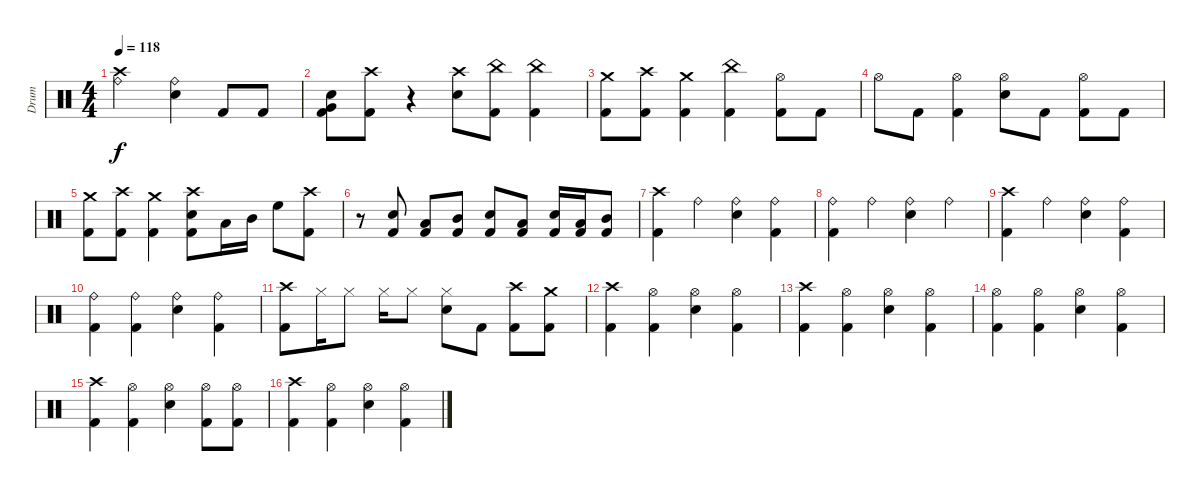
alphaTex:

\track ("Drum" "Drum") {instrument percussion}
\staff {score}
\articulation defaults
\ts (4 4)
\tempo 118
\clef neutral
\ks c
("Crash high (hit)" "Ride (bell)").2{dy f} ("Ride (bell)" "Electric Snare (hit)").4 "Kick (hit) 2".8 "Kick (hit) 2".8 |
("Electric Snare (hit)" "Very Low Tom (hit)" "Kick (hit) 2").8 ("Crash high (hit)" "Kick (hit) 2").8 r.4 ("Crash high (hit)" "Electric Snare (hit)").8 ("China (hit)" "Kick (hit) 2").8 ("China (hit)" "Kick (hit) 2").4 |
("Crash medium (hit)" "Kick (hit) 2").8 ("Crash high (hit)" "Kick (hit) 2").8 ("Crash medium (hit)" "Kick (hit) 2").4 ("China (hit)" "Kick (hit) 2").4 ("Kick (hit) 2" "Hi-Hat (open)").8 "Kick (hit) 2".8 |
"Hi-Hat (open)".8 "Kick (hit) 2".8 ("Kick (hit) 2" "Hi-Hat (open)").4 ("Electric Snare (hit)" "Hi-Hat (open)").8 "Kick (hit) 2".8 ("Kick (hit) 2" "Hi-Hat (open)").8 "Kick (hit) 2".8 |
("Crash medium (hit)" "Kick (hit) 2").8 ("Crash high (hit)" "Kick (hit) 2").8 ("Crash medium (hit)" "Kick (hit) 2").4 ("Crash high (hit)" "Electric Snare (hit)" "Kick (hit) 2").8 "Low Tom (hit)".16 "Mid Tom (hit)".16 "High Floor Tom (hit)".8 ("Crash high (hit)" "Kick (hit) 2").8 |
r.8 ("Kick (hit) 2" "Electric Snare (hit)").8 ("Kick (hit) 2" "Low Tom (hit)").8 ("Kick (hit) 2" "Mid Tom (hit)").8 ("Kick (hit) 2" "Electric Snare (hit)").8 ("Kick (hit) 2" "Low Tom (hit)").8 ("Kick (hit) 2" "Electric Snare (hit)").16 ("Kick (hit) 2" "Low Tom (hit)").16 ("Kick (hit) 2" "Mid Tom (hit)").8 |
("Kick (hit) 2" "Crash high (hit)").4 "Ride (bell)".4 ("Ride (bell)" "Electric Snare (hit)").4 ("Ride (bell)" "Kick (hit) 2").4 |
("Kick (hit) 2" "Ride (bell)").4 "Ride (bell)".4 ("Ride (bell)" "Electric Snare (hit)").4 "Ride (bell)".4 |
("Crash high (hit)" "Kick (hit) 2").4 "Ride (bell)".4 ("Ride (bell)" "Electric Snare (hit)").4 ("Ride (bell)" "Kick (hit) 2").4 |
("Ride (bell)" "Kick (hit) 2").4 ("Ride (bell)" "Kick (hit) 2").4 ("Ride (bell)" "Electric Snare (hit)").4 ("Ride (bell)" "Kick (hit) 2").4 |
("Crash high (hit)" "Kick (hit) 2").8 "Hi-Hat (closed)".16 "Hi-Hat (closed)".8 "Hi-Hat (closed)".16 "Hi-Hat (closed)".8 ("Electric Snare (hit)" "Hi-Hat (closed)").8 "Kick (hit) 2".8 ("Crash high (hit)" "Kick (hit) 2").8 ("Crash medium (hit)" "Kick (hit) 2").8 |
("Crash high (hit)" "Kick (hit) 2").4 ("Hi-Hat (open)" "Kick (hit) 2").4 ("Hi-Hat (open)" "Electric Snare (hit)").4 ("Hi-Hat (open)" "Kick (hit) 2").4 |
("Crash high (hit)" "Kick (hit) 2").4 ("Hi-Hat (open)" "Kick (hit) 2").4 ("Hi-Hat (open)" "Electric Snare (hit)").4 ("Hi-Hat (open)" "Kick (hit) 2").4 |
("Hi-Hat (open)" "Kick (hit) 2").4 ("Hi-Hat (open)" "Kick (hit) 2").4 ("Hi-Hat (open)" "Electric Snare (hit)").4 ("Hi-Hat (open)" "Kick (hit) 2").4 |
("Crash high (hit)" "Kick (hit) 2").4 ("Hi-Hat (open)" "Kick (hit) 2").4 ("Hi-Hat (open)" "Electric Snare (hit)").4 ("Hi-Hat (open)" "Kick (hit) 2").8 ("Kick (hit) 2" "Hi-Hat (open)").8 |
("Crash high (hit)" "Kick (hit) 2").4 ("Hi-Hat (open)" "Kick (hit) 2").4 ("Hi-Hat (open)" "Electric Snare (hit)").4 ("Hi-Hat (open)" "Kick (hit) 2").4
